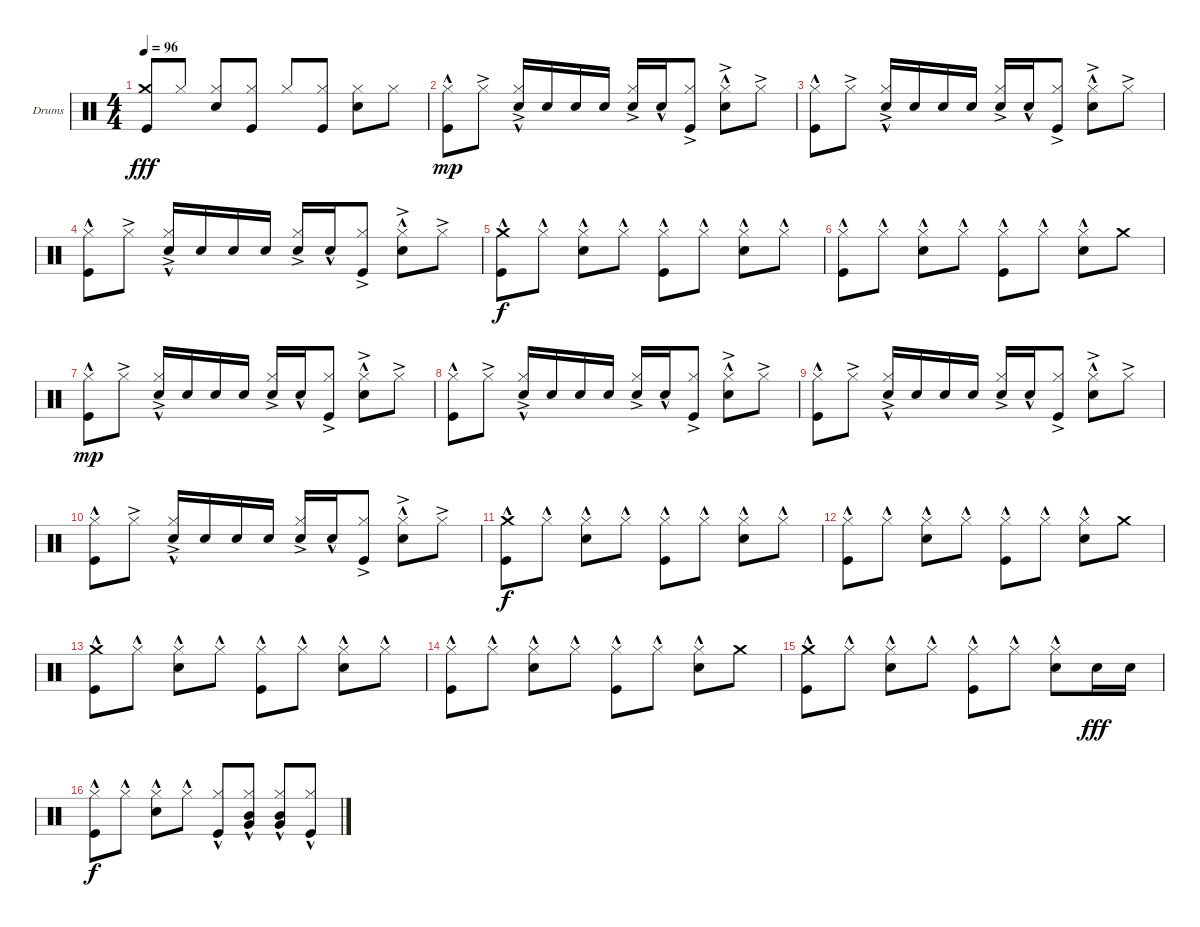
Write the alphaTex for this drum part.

\defaultSystemsLayout 4
\bracketExtendMode groupsimilarinstruments
\firstSystemTrackNameOrientation horizontal
\otherSystemsTrackNameOrientation horizontal
\track ("Drumkit" "Drums") {instrument percussion}
\staff {score}
\articulation defaults
\ts (4 4)
\tempo 96
\clef neutral
\ks c
("Crash medium (hit)" "Kick (hit)").8{dy fff} "Hi-Hat (closed)".8 ("Hi-Hat (closed)" "Snare (hit) 2").8{beam invert} ("Hi-Hat (closed)" "Kick (hit)").8 "Hi-Hat (closed)".8{beam invert} ("Hi-Hat (closed)" "Kick (hit)").8 ("Hi-Hat (closed)" "Snare (hit) 2").8 "Hi-Hat (closed)".8 |
("Kick (hit)"{hac} "Hi-Hat (closed)"{hac}).8{dy mp} "Hi-Hat (closed)"{ac}.8 ("Hi-Hat (closed)"{ac} "Snare (hit) 2"{hac}).16 "Snare (hit) 2".16 "Snare (hit) 2".16 "Snare (hit) 2".16 ("Snare (hit) 2" "Hi-Hat (closed)"{ac}).16{beam invert} "Snare (hit) 2"{hac}.16 ("Hi-Hat (closed)"{ac} "Kick (hit)"{ac}).8 ("Snare (hit) 2"{hac} "Hi-Hat (closed)"{ac}).8 "Hi-Hat (closed)"{ac}.8 |
("Kick (hit)"{hac} "Hi-Hat (closed)"{hac}).8 "Hi-Hat (closed)"{ac}.8 ("Hi-Hat (closed)"{ac} "Snare (hit) 2"{hac}).16 "Snare (hit) 2".16 "Snare (hit) 2".16 "Snare (hit) 2".16 ("Snare (hit) 2" "Hi-Hat (closed)"{ac}).16{beam invert} "Snare (hit) 2"{hac}.16 ("Hi-Hat (closed)"{ac} "Kick (hit)"{ac}).8 ("Snare (hit) 2"{hac} "Hi-Hat (closed)"{ac}).8 "Hi-Hat (closed)"{ac}.8 |
("Kick (hit)"{hac} "Hi-Hat (closed)"{hac}).8 "Hi-Hat (closed)"{ac}.8 ("Hi-Hat (closed)"{ac} "Snare (hit) 2"{hac}).16 "Snare (hit) 2".16 "Snare (hit) 2".16 "Snare (hit) 2".16 ("Snare (hit) 2" "Hi-Hat (closed)"{ac}).16{beam invert} "Snare (hit) 2"{hac}.16 ("Hi-Hat (closed)"{ac} "Kick (hit)"{ac}).8 ("Snare (hit) 2"{hac} "Hi-Hat (closed)"{ac}).8 "Hi-Hat (closed)"{ac}.8 |
("Crash medium (hit)" "Kick (hit)"{hac}).8{dy f} "Hi-Hat (closed)"{hac}.8 ("Hi-Hat (closed)"{hac} "Snare (hit) 2").8 "Hi-Hat (closed)"{hac}.8 ("Hi-Hat (closed)"{hac} "Kick (hit)"{hac}).8 "Hi-Hat (closed)"{hac}.8 ("Hi-Hat (closed)"{hac} "Snare (hit) 2").8 "Hi-Hat (closed)"{hac}.8 |
("Kick (hit)"{hac} "Hi-Hat (closed)"{hac}).8 "Hi-Hat (closed)"{hac}.8 ("Hi-Hat (closed)"{hac} "Snare (hit) 2").8 "Hi-Hat (closed)"{hac}.8 ("Hi-Hat (closed)"{hac} "Kick (hit)"{hac}).8 "Hi-Hat (closed)"{hac}.8 ("Hi-Hat (closed)"{hac} "Snare (hit) 2").8 "Crash medium (hit)".8 |
("Kick (hit)"{hac} "Hi-Hat (closed)"{hac}).8{dy mp} "Hi-Hat (closed)"{ac}.8 ("Hi-Hat (closed)"{ac} "Snare (hit) 2"{hac}).16 "Snare (hit) 2".16 "Snare (hit) 2".16 "Snare (hit) 2".16 ("Snare (hit) 2" "Hi-Hat (closed)"{ac}).16{beam invert} "Snare (hit) 2"{hac}.16 ("Hi-Hat (closed)"{ac} "Kick (hit)"{ac}).8 ("Snare (hit) 2"{hac} "Hi-Hat (closed)"{ac}).8 "Hi-Hat (closed)"{ac}.8 |
("Kick (hit)"{hac} "Hi-Hat (closed)"{hac}).8 "Hi-Hat (closed)"{ac}.8 ("Hi-Hat (closed)"{ac} "Snare (hit) 2"{hac}).16 "Snare (hit) 2".16 "Snare (hit) 2".16 "Snare (hit) 2".16 ("Snare (hit) 2" "Hi-Hat (closed)"{ac}).16{beam invert} "Snare (hit) 2"{hac}.16 ("Hi-Hat (closed)"{ac} "Kick (hit)"{ac}).8 ("Snare (hit) 2"{hac} "Hi-Hat (closed)"{ac}).8 "Hi-Hat (closed)"{ac}.8 |
("Kick (hit)"{hac} "Hi-Hat (closed)"{hac}).8 "Hi-Hat (closed)"{ac}.8 ("Hi-Hat (closed)"{ac} "Snare (hit) 2"{hac}).16 "Snare (hit) 2".16 "Snare (hit) 2".16 "Snare (hit) 2".16 ("Snare (hit) 2" "Hi-Hat (closed)"{ac}).16{beam invert} "Snare (hit) 2"{hac}.16 ("Hi-Hat (closed)"{ac} "Kick (hit)"{ac}).8 ("Snare (hit) 2"{hac} "Hi-Hat (closed)"{ac}).8 "Hi-Hat (closed)"{ac}.8 |
("Kick (hit)"{hac} "Hi-Hat (closed)"{hac}).8 "Hi-Hat (closed)"{ac}.8 ("Hi-Hat (closed)"{ac} "Snare (hit) 2"{hac}).16 "Snare (hit) 2".16 "Snare (hit) 2".16 "Snare (hit) 2".16 ("Snare (hit) 2" "Hi-Hat (closed)"{ac}).16{beam invert} "Snare (hit) 2"{hac}.16 ("Hi-Hat (closed)"{ac} "Kick (hit)"{ac}).8 ("Snare (hit) 2"{hac} "Hi-Hat (closed)"{ac}).8 "Hi-Hat (closed)"{ac}.8 |
("Crash medium (hit)" "Kick (hit)"{hac}).8{dy f} "Hi-Hat (closed)"{hac}.8 ("Hi-Hat (closed)"{hac} "Snare (hit) 2").8 "Hi-Hat (closed)"{hac}.8 ("Hi-Hat (closed)"{hac} "Kick (hit)"{hac}).8 "Hi-Hat (closed)"{hac}.8 ("Hi-Hat (closed)"{hac} "Snare (hit) 2").8 "Hi-Hat (closed)"{hac}.8 |
("Kick (hit)"{hac} "Hi-Hat (closed)"{hac}).8 "Hi-Hat (closed)"{hac}.8 ("Hi-Hat (closed)"{hac} "Snare (hit) 2").8 "Hi-Hat (closed)"{hac}.8 ("Hi-Hat (closed)"{hac} "Kick (hit)"{hac}).8 "Hi-Hat (closed)"{hac}.8 ("Hi-Hat (closed)"{hac} "Snare (hit) 2").8 "Crash medium (hit)".8 |
("Crash medium (hit)" "Kick (hit)"{hac}).8 "Hi-Hat (closed)"{hac}.8 ("Hi-Hat (closed)"{hac} "Snare (hit) 2").8 "Hi-Hat (closed)"{hac}.8 ("Hi-Hat (closed)"{hac} "Kick (hit)"{hac}).8 "Hi-Hat (closed)"{hac}.8 ("Hi-Hat (closed)"{hac} "Snare (hit) 2").8 "Hi-Hat (closed)"{hac}.8 |
("Kick (hit)"{hac} "Hi-Hat (closed)"{hac}).8 "Hi-Hat (closed)"{hac}.8 ("Hi-Hat (closed)"{hac} "Snare (hit) 2").8 "Hi-Hat (closed)"{hac}.8 ("Hi-Hat (closed)"{hac} "Kick (hit)"{hac}).8 "Hi-Hat (closed)"{hac}.8 ("Hi-Hat (closed)"{hac} "Snare (hit) 2").8 "Crash medium (hit)".8 |
("Crash medium (hit)" "Kick (hit)"{hac}).8 "Hi-Hat (closed)"{hac}.8 ("Hi-Hat (closed)"{hac} "Snare (hit) 2").8 "Hi-Hat (closed)"{hac}.8 ("Hi-Hat (closed)"{hac} "Kick (hit)"{hac}).8 "Hi-Hat (closed)"{hac}.8 ("Snare (hit) 2" "Hi-Hat (closed)"{hac}).8 "Snare (hit) 2".16{dy fff} "Snare (hit) 2".16 |
("Kick (hit)"{hac} "Hi-Hat (closed)"{hac}).8{dy f} "Hi-Hat (closed)"{hac}.8 ("Hi-Hat (closed)"{hac} "Snare (hit) 2").8 "Hi-Hat (closed)"{hac}.8 ("Hi-Hat (closed)"{hac} "Kick (hit)"{hac}).8 ("Hi-Hat (closed)"{hac} "Mid Tom (hit)"{hac} "Very Low Tom (hit)"{hac}).8 ("Hi-Hat (closed)"{hac} "Very Low Tom (hit)"{hac} "Mid Tom (hit)").8{beam invert} ("Hi-Hat (closed)"{hac} "Kick (hit)"{hac}).8
